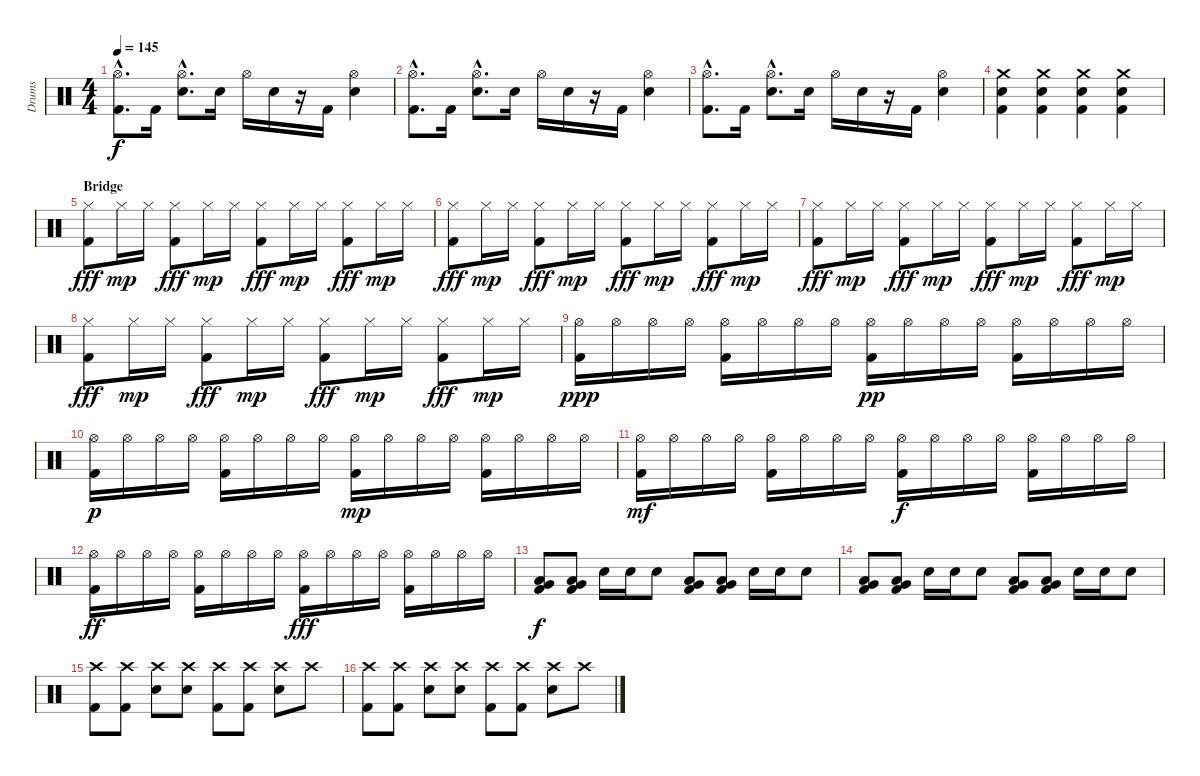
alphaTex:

\track ("Drums" "Drums") {instrument percussion}
\staff {score}
\articulation defaults
\ts (4 4)
\tempo 145
\clef neutral
\ks c
("Hi-Hat (open)"{hac} "Kick (hit) 2"{hac}).8{d dy f} "Kick (hit) 2".16 ("Hi-Hat (open)"{hac} "Electric Snare (hit)"{hac}).8{d} "Electric Snare (hit)".16 "Hi-Hat (open)".16 "Electric Snare (hit)".16 r.16 "Kick (hit) 2".16 ("Hi-Hat (open)" "Electric Snare (hit)").4 |
("Hi-Hat (open)"{hac} "Kick (hit) 2"{hac}).8{d} "Kick (hit) 2".16 ("Hi-Hat (open)"{hac} "Electric Snare (hit)"{hac}).8{d} "Electric Snare (hit)".16 "Hi-Hat (open)".16 "Electric Snare (hit)".16 r.16 "Kick (hit) 2".16 ("Hi-Hat (open)" "Electric Snare (hit)").4 |
("Hi-Hat (open)"{hac} "Kick (hit) 2"{hac}).8{d} "Kick (hit) 2".16 ("Hi-Hat (open)"{hac} "Electric Snare (hit)"{hac}).8{d} "Electric Snare (hit)".16 "Hi-Hat (open)".16 "Electric Snare (hit)".16 r.16 "Kick (hit) 2".16 ("Hi-Hat (open)" "Electric Snare (hit)").4 |
("Crash medium (hit)" "Electric Snare (hit)" "Kick (hit) 2").4 ("Crash medium (hit)" "Electric Snare (hit)" "Kick (hit) 2").4 ("Crash medium (hit)" "Electric Snare (hit)" "Kick (hit) 2").4 ("Crash medium (hit)" "Electric Snare (hit)" "Kick (hit) 2").4 |
\section ("" "Bridge")
("Hi-Hat (closed)" "Kick (hit) 2").8{dy fff} "Hi-Hat (closed)".16{dy mp} "Hi-Hat (closed)".16 ("Hi-Hat (closed)" "Kick (hit) 2").8{dy fff} "Hi-Hat (closed)".16{dy mp} "Hi-Hat (closed)".16 ("Hi-Hat (closed)" "Kick (hit) 2").8{dy fff} "Hi-Hat (closed)".16{dy mp} "Hi-Hat (closed)".16 ("Hi-Hat (closed)" "Kick (hit) 2").8{dy fff} "Hi-Hat (closed)".16{dy mp} "Hi-Hat (closed)".16 |
("Hi-Hat (closed)" "Kick (hit) 2").8{dy fff} "Hi-Hat (closed)".16{dy mp} "Hi-Hat (closed)".16 ("Hi-Hat (closed)" "Kick (hit) 2").8{dy fff} "Hi-Hat (closed)".16{dy mp} "Hi-Hat (closed)".16 ("Hi-Hat (closed)" "Kick (hit) 2").8{dy fff} "Hi-Hat (closed)".16{dy mp} "Hi-Hat (closed)".16 ("Hi-Hat (closed)" "Kick (hit) 2").8{dy fff} "Hi-Hat (closed)".16{dy mp} "Hi-Hat (closed)".16 |
("Hi-Hat (closed)" "Kick (hit) 2").8{dy fff} "Hi-Hat (closed)".16{dy mp} "Hi-Hat (closed)".16 ("Hi-Hat (closed)" "Kick (hit) 2").8{dy fff} "Hi-Hat (closed)".16{dy mp} "Hi-Hat (closed)".16 ("Hi-Hat (closed)" "Kick (hit) 2").8{dy fff} "Hi-Hat (closed)".16{dy mp} "Hi-Hat (closed)".16 ("Hi-Hat (closed)" "Kick (hit) 2").8{dy fff} "Hi-Hat (closed)".16{dy mp} "Hi-Hat (closed)".16 |
("Hi-Hat (closed)" "Kick (hit) 2").8{dy fff} "Hi-Hat (closed)".16{dy mp} "Hi-Hat (closed)".16 ("Hi-Hat (closed)" "Kick (hit) 2").8{dy fff} "Hi-Hat (closed)".16{dy mp} "Hi-Hat (closed)".16 ("Hi-Hat (closed)" "Kick (hit) 2").8{dy fff} "Hi-Hat (closed)".16{dy mp} "Hi-Hat (closed)".16 ("Hi-Hat (closed)" "Kick (hit) 2").8{dy fff} "Hi-Hat (closed)".16{dy mp} "Hi-Hat (closed)".16 |
("Hi-Hat (open)" "Kick (hit) 2").16{dy ppp} "Hi-Hat (open)".16 "Hi-Hat (open)".16 "Hi-Hat (open)".16 ("Hi-Hat (open)" "Kick (hit) 2").16 "Hi-Hat (open)".16 "Hi-Hat (open)".16 "Hi-Hat (open)".16 ("Hi-Hat (open)" "Kick (hit) 2").16{dy pp} "Hi-Hat (open)".16 "Hi-Hat (open)".16 "Hi-Hat (open)".16 ("Hi-Hat (open)" "Kick (hit) 2").16 "Hi-Hat (open)".16 "Hi-Hat (open)".16 "Hi-Hat (open)".16 |
("Hi-Hat (open)" "Kick (hit) 2").16{dy p} "Hi-Hat (open)".16 "Hi-Hat (open)".16 "Hi-Hat (open)".16 ("Hi-Hat (open)" "Kick (hit) 2").16 "Hi-Hat (open)".16 "Hi-Hat (open)".16 "Hi-Hat (open)".16 ("Hi-Hat (open)" "Kick (hit) 2").16{dy mp} "Hi-Hat (open)".16 "Hi-Hat (open)".16 "Hi-Hat (open)".16 ("Hi-Hat (open)" "Kick (hit) 2").16 "Hi-Hat (open)".16 "Hi-Hat (open)".16 "Hi-Hat (open)".16 |
("Hi-Hat (open)" "Kick (hit) 2").16{dy mf} "Hi-Hat (open)".16 "Hi-Hat (open)".16 "Hi-Hat (open)".16 ("Hi-Hat (open)" "Kick (hit) 2").16 "Hi-Hat (open)".16 "Hi-Hat (open)".16 "Hi-Hat (open)".16 ("Hi-Hat (open)" "Kick (hit) 2").16{dy f} "Hi-Hat (open)".16 "Hi-Hat (open)".16 "Hi-Hat (open)".16 ("Hi-Hat (open)" "Kick (hit) 2").16 "Hi-Hat (open)".16 "Hi-Hat (open)".16 "Hi-Hat (open)".16 |
("Hi-Hat (open)" "Kick (hit) 2").16{dy ff} "Hi-Hat (open)".16 "Hi-Hat (open)".16 "Hi-Hat (open)".16 ("Hi-Hat (open)" "Kick (hit) 2").16 "Hi-Hat (open)".16 "Hi-Hat (open)".16 "Hi-Hat (open)".16 ("Hi-Hat (open)" "Kick (hit) 2").16{dy fff} "Hi-Hat (open)".16 "Hi-Hat (open)".16 "Hi-Hat (open)".16 ("Hi-Hat (open)" "Kick (hit) 2").16 "Hi-Hat (open)".16 "Hi-Hat (open)".16 "Hi-Hat (open)".16 |
("Low Floor Tom (hit)" "Very Low Tom (hit)" "Kick (hit) 2").8{dy f} ("Low Floor Tom (hit)" "Very Low Tom (hit)" "Kick (hit) 2").8 "Electric Snare (hit)".16 "Electric Snare (hit)".16 "Electric Snare (hit)".8 ("Low Floor Tom (hit)" "Very Low Tom (hit)" "Kick (hit) 2").8 ("Low Floor Tom (hit)" "Very Low Tom (hit)" "Kick (hit) 2").8 "Electric Snare (hit)".16 "Electric Snare (hit)".16 "Electric Snare (hit)".8 |
("Low Floor Tom (hit)" "Very Low Tom (hit)" "Kick (hit) 2").8 ("Low Floor Tom (hit)" "Very Low Tom (hit)" "Kick (hit) 2").8 "Electric Snare (hit)".16 "Electric Snare (hit)".16 "Electric Snare (hit)".8 ("Low Floor Tom (hit)" "Very Low Tom (hit)" "Kick (hit) 2").8 ("Low Floor Tom (hit)" "Very Low Tom (hit)" "Kick (hit) 2").8 "Electric Snare (hit)".16 "Electric Snare (hit)".16 "Electric Snare (hit)".8 |
("Crash high (hit)" "Kick (hit) 2").8 ("Crash high (hit)" "Kick (hit) 2").8 ("Crash high (hit)" "Electric Snare (hit)").8 ("Crash high (hit)" "Electric Snare (hit)").8 ("Crash high (hit)" "Kick (hit) 2").8 ("Crash high (hit)" "Kick (hit) 2").8 ("Crash high (hit)" "Electric Snare (hit)").8 "Crash high (hit)".8 |
("Crash high (hit)" "Kick (hit) 2").8 ("Crash high (hit)" "Kick (hit) 2").8 ("Crash high (hit)" "Electric Snare (hit)").8 ("Crash high (hit)" "Electric Snare (hit)").8 ("Crash high (hit)" "Kick (hit) 2").8 ("Crash high (hit)" "Kick (hit) 2").8 ("Crash high (hit)" "Electric Snare (hit)").8 "Crash high (hit)".8
